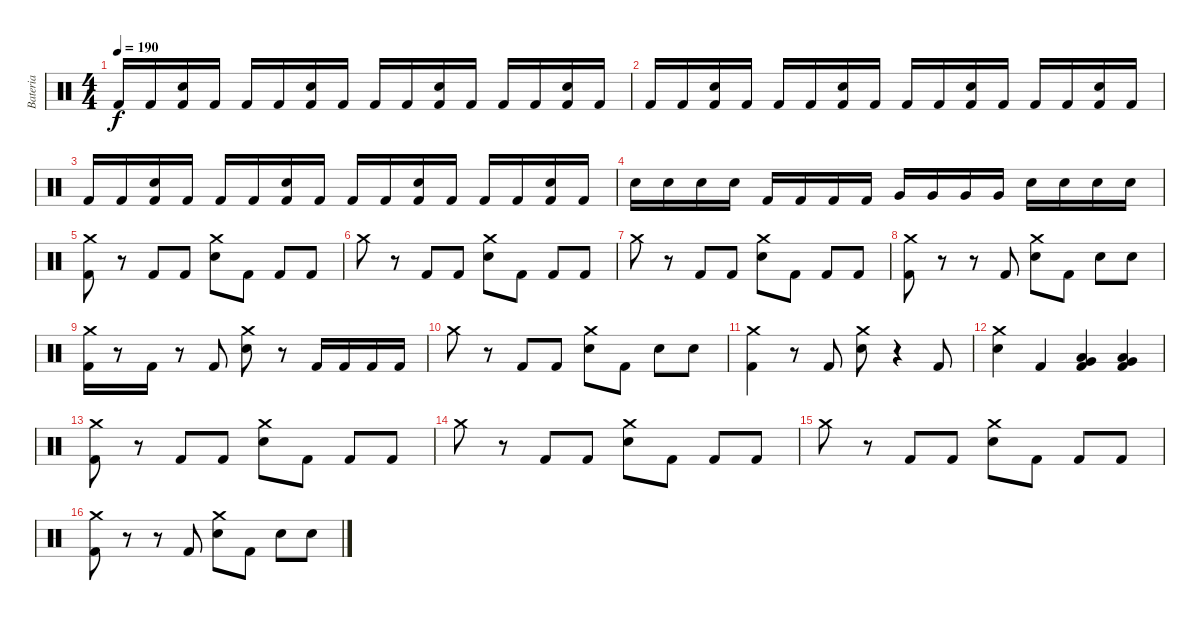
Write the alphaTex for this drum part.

\track ("Bateria" "Bateria") {instrument percussion}
\staff {score}
\articulation defaults
\ts (4 4)
\tempo 190
\clef neutral
\ks c "Kick (hit) 2".16{dy f} "Kick (hit) 2".16
("Electric Snare (hit)" "Kick (hit) 2").16 "Kick (hit) 2".16 "Kick (hit) 2".16 "Kick (hit) 2".16 ("Electric Snare (hit)" "Kick (hit) 2").16 "Kick (hit) 2".16 "Kick (hit) 2".16 "Kick (hit) 2".16 ("Electric Snare (hit)" "Kick (hit) 2").16 "Kick (hit) 2".16 "Kick (hit) 2".16 "Kick (hit) 2".16 ("Electric Snare (hit)" "Kick (hit) 2").16 "Kick (hit) 2".16 |
"Kick (hit) 2".16 "Kick (hit) 2".16 ("Electric Snare (hit)" "Kick (hit) 2").16 "Kick (hit) 2".16 "Kick (hit) 2".16 "Kick (hit) 2".16 ("Electric Snare (hit)" "Kick (hit) 2").16 "Kick (hit) 2".16 "Kick (hit) 2".16 "Kick (hit) 2".16 ("Electric Snare (hit)" "Kick (hit) 2").16 "Kick (hit) 2".16 "Kick (hit) 2".16 "Kick (hit) 2".16 ("Electric Snare (hit)" "Kick (hit) 2").16 "Kick (hit) 2".16 |
"Kick (hit) 2".16 "Kick (hit) 2".16 ("Electric Snare (hit)" "Kick (hit) 2").16 "Kick (hit) 2".16 "Kick (hit) 2".16 "Kick (hit) 2".16 ("Electric Snare (hit)" "Kick (hit) 2").16 "Kick (hit) 2".16 "Kick (hit) 2".16 "Kick (hit) 2".16 ("Electric Snare (hit)" "Kick (hit) 2").16 "Kick (hit) 2".16 "Kick (hit) 2".16 "Kick (hit) 2".16 ("Electric Snare (hit)" "Kick (hit) 2").16 "Kick (hit) 2".16 |
"Electric Snare (hit)".16 "Electric Snare (hit)".16 "Electric Snare (hit)".16 "Electric Snare (hit)".16 "Kick (hit) 2".16 "Kick (hit) 2".16 "Kick (hit) 2".16 "Kick (hit) 2".16 "Very Low Tom (hit)".16 "Very Low Tom (hit)".16 "Very Low Tom (hit)".16 "Very Low Tom (hit)".16 "Electric Snare (hit)".16 "Electric Snare (hit)".16 "Electric Snare (hit)".16 "Electric Snare (hit)".16 |
("Crash medium (hit)" "Kick (hit) 2").8 r.8 "Kick (hit) 2".8 "Kick (hit) 2".8 ("Crash medium (hit)" "Electric Snare (hit)").8 "Kick (hit) 2".8 "Kick (hit) 2".8 "Kick (hit) 2".8 |
"Crash medium (hit)".8 r.8 "Kick (hit) 2".8 "Kick (hit) 2".8 ("Crash medium (hit)" "Electric Snare (hit)").8 "Kick (hit) 2".8 "Kick (hit) 2".8 "Kick (hit) 2".8 |
"Crash medium (hit)".8 r.8 "Kick (hit) 2".8 "Kick (hit) 2".8 ("Crash medium (hit)" "Electric Snare (hit)").8 "Kick (hit) 2".8 "Kick (hit) 2".8 "Kick (hit) 2".8 |
("Crash medium (hit)" "Kick (hit) 2").8 r.8 r.8 "Kick (hit) 2".8 ("Crash medium (hit)" "Electric Snare (hit)").8 "Kick (hit) 2".8 "Electric Snare (hit)".8 "Electric Snare (hit)".8 |
("Crash medium (hit)" "Kick (hit) 2").16 r.8 "Kick (hit) 2".16 r.8 "Kick (hit) 2".8 ("Crash medium (hit)" "Electric Snare (hit)").8 r.8 "Kick (hit) 2".16 "Kick (hit) 2".16 "Kick (hit) 2".16 "Kick (hit) 2".16 |
"Crash medium (hit)".8 r.8 "Kick (hit) 2".8 "Kick (hit) 2".8 ("Crash medium (hit)" "Electric Snare (hit)").8 "Kick (hit) 2".8 "Electric Snare (hit)".8 "Electric Snare (hit)".8 |
("Crash medium (hit)" "Kick (hit) 2").4 r.8 "Kick (hit) 2".8 ("Crash medium (hit)" "Electric Snare (hit)").8 r.4 "Kick (hit) 2".8 |
("Crash medium (hit)" "Electric Snare (hit)").4 "Kick (hit) 2".4 ("Low Floor Tom (hit)" "Very Low Tom (hit)" "Kick (hit) 2").4 ("Low Floor Tom (hit)" "Very Low Tom (hit)" "Kick (hit) 2").4 |
("Crash medium (hit)" "Kick (hit) 2").8 r.8 "Kick (hit) 2".8 "Kick (hit) 2".8 ("Crash medium (hit)" "Electric Snare (hit)").8 "Kick (hit) 2".8 "Kick (hit) 2".8 "Kick (hit) 2".8 |
"Crash medium (hit)".8 r.8 "Kick (hit) 2".8 "Kick (hit) 2".8 ("Crash medium (hit)" "Electric Snare (hit)").8 "Kick (hit) 2".8 "Kick (hit) 2".8 "Kick (hit) 2".8 |
"Crash medium (hit)".8 r.8 "Kick (hit) 2".8 "Kick (hit) 2".8 ("Crash medium (hit)" "Electric Snare (hit)").8 "Kick (hit) 2".8 "Kick (hit) 2".8 "Kick (hit) 2".8 |
("Crash medium (hit)" "Kick (hit) 2").8 r.8 r.8 "Kick (hit) 2".8 ("Crash medium (hit)" "Electric Snare (hit)").8 "Kick (hit) 2".8 "Electric Snare (hit)".8 "Electric Snare (hit)".8
